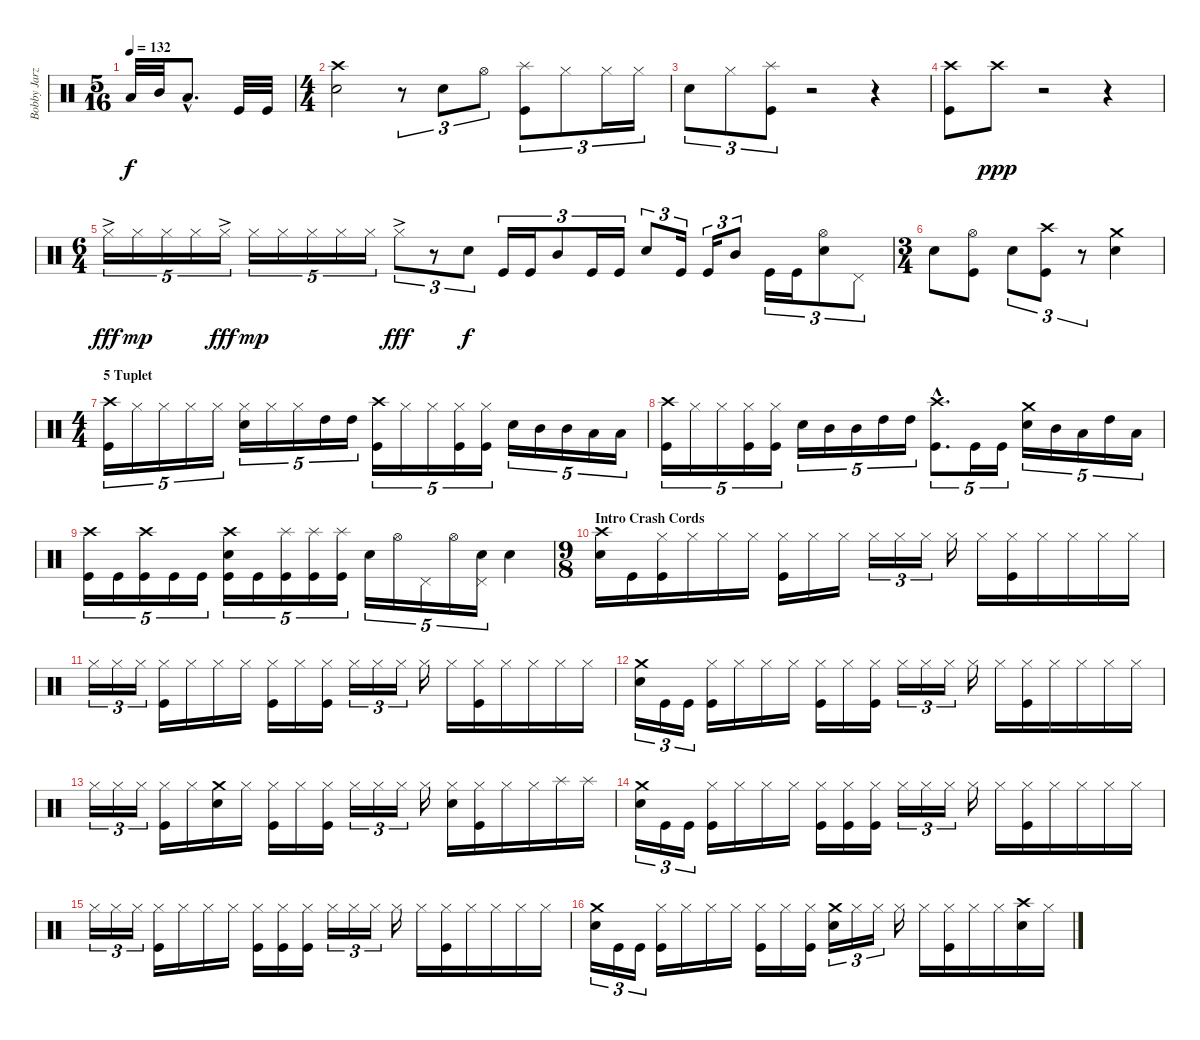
\track ("Bobby Jarzombek" "Bobby Jarz") {instrument percussion}
\staff {score}
\articulation defaults
\ts (5 16)
\tempo 132
\clef neutral
\ks c "Low Tom (hit)".32{dy f} "Mid Tom (hit)".32 "Low Tom (hit)"{hac}.8{d} "Kick (hit)".32 "Kick (hit)".32
|
\ts (4 4)
("Crash high (hit)" "Electric Snare (hit)").2 r.8{tu (3 2)} "Electric Snare (hit)".8{tu (3 2)} "Hi-Hat (open)".8{tu (3 2)} ("Splash (hit)" "Kick (hit)").8{tu (3 2)} "Hi-Hat (closed)".8{tu (3 2)} "Hi-Hat (closed)".16{tu (3 2)} "Hi-Hat (closed)".16{tu (3 2)} |
"Electric Snare (hit)".8{tu (3 2)} "Hi-Hat (closed)".8{tu (3 2)} ("Splash (hit)" "Kick (hit)").8{tu (3 2)} r.2 r.4 |
("Crash high (hit)" "Kick (hit)").8 "Crash high (hit)".8{dy ppp} r.2 r.4 |
\ts (6 4)
"Hi-Hat (closed)"{ac}.16{tu (5 4) dy fff} "Hi-Hat (closed)".16{tu (5 4) dy mp} "Hi-Hat (closed)".16{tu (5 4)} "Hi-Hat (closed)".16{tu (5 4)} "Hi-Hat (closed)"{ac}.16{tu (5 4) dy fff} "Hi-Hat (closed)".16{tu (5 4) dy mp} "Hi-Hat (closed)".16{tu (5 4)} "Hi-Hat (closed)".16{tu (5 4)} "Hi-Hat (closed)".16{tu (5 4)} "Hi-Hat (closed)".16{tu (5 4)} "Hi-Hat (closed)"{ac}.8{tu (3 2) dy fff} r.8{tu (3 2)} "Electric Snare (hit)".8{tu (3 2) dy f} "Kick (hit)".16{tu (3 2)} "Kick (hit)".16{tu (3 2)} "Mid Tom (hit)".8{tu (3 2)} "Kick (hit)".16{tu (3 2)} "Kick (hit)".16{tu (3 2)} "Electric Snare (hit)".8{tu (3 2)} "Kick (hit)".16{tu (3 2)} "Kick (hit)".16{tu (3 2)} "Mid Tom (hit)".8{tu (3 2)} "Kick (hit)".16{tu (3 2)} "Kick (hit)".16{tu (3 2)} ("Hi-Hat (open)" "Electric Snare (hit)").8{tu (3 2)} "Pedal Hi-Hat (hit)".8{tu (3 2)} |
\ts (3 4)
"Electric Snare (hit)".8 ("Hi-Hat (open)" "Kick (hit)").8 "Electric Snare (hit)".8{tu (3 2)} ("Crash high (hit)" "Kick (hit)").8{tu (3 2)} r.8{tu (3 2)} ("Crash medium (hit)" "Electric Snare (hit)").4 |
\ts (4 4)
\section ("" "5 Tuplet")
("Crash high (hit)" "Kick (hit)").16{tu (5 4)} "Hi-Hat (closed)".16{tu (5 4)} "Hi-Hat (closed)".16{tu (5 4)} "Hi-Hat (closed)".16{tu (5 4)} "Hi-Hat (closed)".16{tu (5 4)} ("Hi-Hat (closed)" "Electric Snare (hit)").16{tu (5 4)} "Hi-Hat (closed)".16{tu (5 4)} "Hi-Hat (closed)".16{tu (5 4)} "High Tom (hit)".16{tu (5 4)} "High Tom (hit)".16{tu (5 4)} ("Crash high (hit)" "Kick (hit)").16{tu (5 4)} "Hi-Hat (closed)".16{tu (5 4)} "Hi-Hat (closed)".16{tu (5 4)} ("Hi-Hat (closed)" "Kick (hit)").16{tu (5 4)} ("Hi-Hat (closed)" "Kick (hit)").16{tu (5 4)} "Electric Snare (hit)".16{tu (5 4)} "Mid Tom (hit)".16{tu (5 4)} "Mid Tom (hit)".16{tu (5 4)} "Low Tom (hit)".16{tu (5 4)} "Low Tom (hit)".16{tu (5 4)} |
("Crash high (hit)" "Kick (hit)").16{tu (5 4)} "Hi-Hat (closed)".16{tu (5 4)} "Hi-Hat (closed)".16{tu (5 4)} ("Hi-Hat (closed)" "Kick (hit)").16{tu (5 4)} ("Hi-Hat (closed)" "Kick (hit)").16{tu (5 4)} "Electric Snare (hit)".16{tu (5 4)} "Mid Tom (hit)".16{tu (5 4)} "Mid Tom (hit)".16{tu (5 4)} "High Tom (hit)".16{tu (5 4)} "High Tom (hit)".16{tu (5 4)} ("Crash high (hit)"{hac} "Kick (hit)"{hac}).8{d tu (5 4)} "Kick (hit)".16{tu (5 4)} "Kick (hit)".16{tu (5 4)} ("Crash medium (hit)" "Electric Snare (hit)").16{tu (5 4)} "Mid Tom (hit)".16{tu (5 4)} "Low Tom (hit)".16{tu (5 4)} "High Tom (hit)".16{tu (5 4)} "Low Tom (hit)".16{tu (5 4)} |
("Crash high (hit)" "Kick (hit)").16{tu (5 4)} "Kick (hit)".16{tu (5 4)} ("Crash high (hit)" "Kick (hit)").16{tu (5 4)} "Kick (hit)".16{tu (5 4)} "Kick (hit)".16{tu (5 4)} ("Crash high (hit)" "Electric Snare (hit)" "Kick (hit)").16{tu (5 4)} "Kick (hit)".16{tu (5 4)} ("Splash (hit)" "Kick (hit)").16{tu (5 4)} ("Splash (hit)" "Kick (hit)").16{tu (5 4)} ("Splash (hit)" "Kick (hit)").16{tu (5 4)} "Electric Snare (hit)".16{tu (5 4)} "Hi-Hat (open)".16{tu (5 4)} "Pedal Hi-Hat (hit)".16{tu (5 4)} "Hi-Hat (open)".16{tu (5 4)} ("Electric Snare (hit)" "Pedal Hi-Hat (hit)").16{tu (5 4)} "Electric Snare (hit)".4 |
\ts (9 8)
\section ("" "Intro Crash Cords")
("Crash high (hit)" "Electric Snare (hit)").16 "Kick (hit)".16 ("Hi-Hat (closed)" "Kick (hit)").16 "Hi-Hat (closed)".16 "Hi-Hat (closed)".16 "Hi-Hat (closed)".16 ("Hi-Hat (closed)" "Kick (hit)").16 "Hi-Hat (closed)".16 "Hi-Hat (closed)".16 "Hi-Hat (closed)".16{tu (3 2)} "Hi-Hat (closed)".16{tu (3 2)} "Hi-Hat (closed)".16{tu (3 2)} "Hi-Hat (closed)".16 "Hi-Hat (closed)".16 ("Hi-Hat (closed)" "Kick (hit)").16 "Hi-Hat (closed)".16 "Hi-Hat (closed)".16 "Hi-Hat (closed)".16 "Hi-Hat (closed)".16 |
"Hi-Hat (closed)".16{tu (3 2)} "Hi-Hat (closed)".16{tu (3 2)} "Hi-Hat (closed)".16{tu (3 2)} ("Hi-Hat (closed)" "Kick (hit)").16 "Hi-Hat (closed)".16 "Hi-Hat (closed)".16 "Hi-Hat (closed)".16 ("Hi-Hat (closed)" "Kick (hit)").16 "Hi-Hat (closed)".16 ("Hi-Hat (closed)" "Kick (hit)").16 "Hi-Hat (closed)".16{tu (3 2)} "Hi-Hat (closed)".16{tu (3 2)} "Hi-Hat (closed)".16{tu (3 2)} "Hi-Hat (closed)".16 "Hi-Hat (closed)".16 ("Hi-Hat (closed)" "Kick (hit)").16 "Hi-Hat (closed)".16 "Hi-Hat (closed)".16 "Hi-Hat (closed)".16 "Hi-Hat (closed)".16 |
("Crash medium (hit)" "Electric Snare (hit)").16{tu (3 2)} "Kick (hit)".16{tu (3 2)} "Kick (hit)".16{tu (3 2)} ("Hi-Hat (closed)" "Kick (hit)").16 "Hi-Hat (closed)".16 "Hi-Hat (closed)".16 "Hi-Hat (closed)".16 ("Hi-Hat (closed)" "Kick (hit)").16 "Hi-Hat (closed)".16 ("Hi-Hat (closed)" "Kick (hit)").16 "Hi-Hat (closed)".16{tu (3 2)} "Hi-Hat (closed)".16{tu (3 2)} "Hi-Hat (closed)".16{tu (3 2)} "Hi-Hat (closed)".16 "Hi-Hat (closed)".16 ("Hi-Hat (closed)" "Kick (hit)").16 "Hi-Hat (closed)".16 "Hi-Hat (closed)".16 "Hi-Hat (closed)".16 "Hi-Hat (closed)".16 |
"Hi-Hat (closed)".16{tu (3 2)} "Hi-Hat (closed)".16{tu (3 2)} "Hi-Hat (closed)".16{tu (3 2)} ("Hi-Hat (closed)" "Kick (hit)").16 "Hi-Hat (closed)".16 ("Crash medium (hit)" "Electric Snare (hit)").16 "Hi-Hat (closed)".16 ("Hi-Hat (closed)" "Kick (hit)").16 "Hi-Hat (closed)".16 ("Hi-Hat (closed)" "Kick (hit)").16 "Hi-Hat (closed)".16{tu (3 2)} "Hi-Hat (closed)".16{tu (3 2)} "Hi-Hat (closed)".16{tu (3 2)} "Hi-Hat (closed)".16 ("Hi-Hat (closed)" "Electric Snare (hit)").16 ("Hi-Hat (closed)" "Kick (hit)").16 "Hi-Hat (closed)".16 "Hi-Hat (closed)".16 "Splash (hit)".16 "Splash (hit)".16 |
("Crash medium (hit)" "Electric Snare (hit)").16{tu (3 2)} "Kick (hit)".16{tu (3 2)} "Kick (hit)".16{tu (3 2)} ("Hi-Hat (closed)" "Kick (hit)").16 "Hi-Hat (closed)".16 "Hi-Hat (closed)".16 "Hi-Hat (closed)".16 ("Hi-Hat (closed)" "Kick (hit)").16 ("Hi-Hat (closed)" "Kick (hit)").16 ("Hi-Hat (closed)" "Kick (hit)").16 "Hi-Hat (closed)".16{tu (3 2)} "Hi-Hat (closed)".16{tu (3 2)} "Hi-Hat (closed)".16{tu (3 2)} "Hi-Hat (closed)".16 "Hi-Hat (closed)".16 ("Hi-Hat (closed)" "Kick (hit)").16 "Hi-Hat (closed)".16 "Hi-Hat (closed)".16 "Hi-Hat (closed)".16 "Hi-Hat (closed)".16 |
"Hi-Hat (closed)".16{tu (3 2)} "Hi-Hat (closed)".16{tu (3 2)} "Hi-Hat (closed)".16{tu (3 2)} ("Hi-Hat (closed)" "Kick (hit)").16 "Hi-Hat (closed)".16 "Hi-Hat (closed)".16 "Hi-Hat (closed)".16 ("Hi-Hat (closed)" "Kick (hit)").16 ("Hi-Hat (closed)" "Kick (hit)").16 ("Hi-Hat (closed)" "Kick (hit)").16 "Hi-Hat (closed)".16{tu (3 2)} "Hi-Hat (closed)".16{tu (3 2)} "Hi-Hat (closed)".16{tu (3 2)} "Hi-Hat (closed)".16 "Hi-Hat (closed)".16 ("Hi-Hat (closed)" "Kick (hit)").16 "Hi-Hat (closed)".16 "Hi-Hat (closed)".16 "Hi-Hat (closed)".16 "Hi-Hat (closed)".16 |
("Crash medium (hit)" "Electric Snare (hit)").16{tu (3 2)} "Kick (hit)".16{tu (3 2)} "Kick (hit)".16{tu (3 2)} ("Hi-Hat (closed)" "Kick (hit)").16 "Hi-Hat (closed)".16 "Hi-Hat (closed)".16 "Hi-Hat (closed)".16 ("Hi-Hat (closed)" "Kick (hit)").16 "Hi-Hat (closed)".16 ("Hi-Hat (closed)" "Kick (hit)").16 ("Crash medium (hit)" "Electric Snare (hit)").16{tu (3 2)} "Hi-Hat (closed)".16{tu (3 2)} "Hi-Hat (closed)".16{tu (3 2)} "Hi-Hat (closed)".16 "Hi-Hat (closed)".16 ("Hi-Hat (closed)" "Kick (hit)").16 "Hi-Hat (closed)".16 "Hi-Hat (closed)".16 ("Crash high (hit)" "Electric Snare (hit)").16 "Hi-Hat (closed)".16
